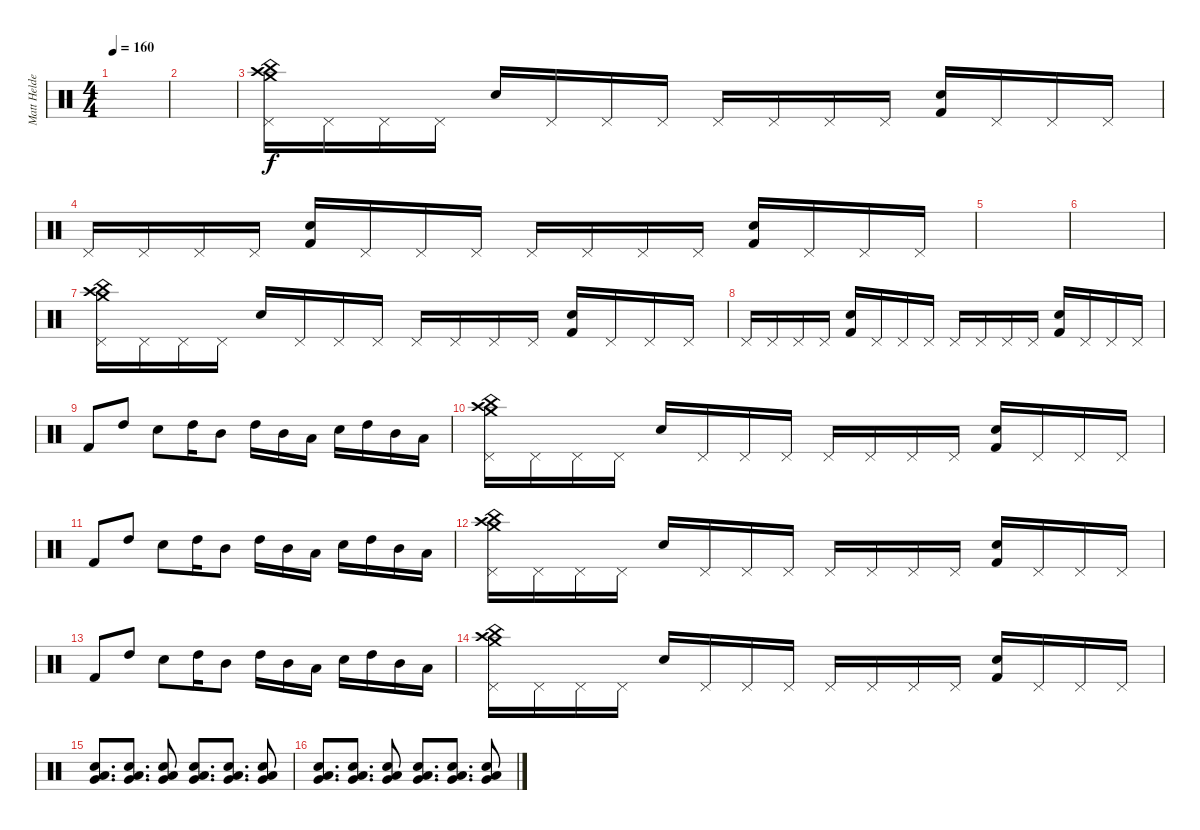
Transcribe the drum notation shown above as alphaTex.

\track ("Matt Helders" "Matt Helde") {instrument percussion}
\staff {score}
\articulation defaults
\ts (4 4)
\tempo 160
\clef neutral
\ks c
|
|
("Pedal Hi-Hat (hit)" "Crash medium (hit)" "Crash high (hit)" "China (hit)").16 "Pedal Hi-Hat (hit)".16 "Pedal Hi-Hat (hit)".16 "Pedal Hi-Hat (hit)".16 "Snare (hit) 2".16 "Pedal Hi-Hat (hit)".16 "Pedal Hi-Hat (hit)".16 "Pedal Hi-Hat (hit)".16 "Pedal Hi-Hat (hit)".16 "Pedal Hi-Hat (hit)".16 "Pedal Hi-Hat (hit)".16 "Pedal Hi-Hat (hit)".16 ("Snare (hit) 2" "Kick (hit) 2").16 "Pedal Hi-Hat (hit)".16 "Pedal Hi-Hat (hit)".16 "Pedal Hi-Hat (hit)".16 |
"Pedal Hi-Hat (hit)".16 "Pedal Hi-Hat (hit)".16 "Pedal Hi-Hat (hit)".16 "Pedal Hi-Hat (hit)".16 ("Snare (hit) 2" "Kick (hit) 2").16 "Pedal Hi-Hat (hit)".16 "Pedal Hi-Hat (hit)".16 "Pedal Hi-Hat (hit)".16 "Pedal Hi-Hat (hit)".16 "Pedal Hi-Hat (hit)".16 "Pedal Hi-Hat (hit)".16 "Pedal Hi-Hat (hit)".16 ("Snare (hit) 2" "Kick (hit) 2").16 "Pedal Hi-Hat (hit)".16 "Pedal Hi-Hat (hit)".16 "Pedal Hi-Hat (hit)".16 |
|
|
("Pedal Hi-Hat (hit)" "Crash medium (hit)" "Crash high (hit)" "China (hit)").16 "Pedal Hi-Hat (hit)".16 "Pedal Hi-Hat (hit)".16 "Pedal Hi-Hat (hit)".16 "Snare (hit) 2".16 "Pedal Hi-Hat (hit)".16 "Pedal Hi-Hat (hit)".16 "Pedal Hi-Hat (hit)".16 "Pedal Hi-Hat (hit)".16 "Pedal Hi-Hat (hit)".16 "Pedal Hi-Hat (hit)".16 "Pedal Hi-Hat (hit)".16 ("Snare (hit) 2" "Kick (hit) 2").16 "Pedal Hi-Hat (hit)".16 "Pedal Hi-Hat (hit)".16 "Pedal Hi-Hat (hit)".16 |
"Pedal Hi-Hat (hit)".16 "Pedal Hi-Hat (hit)".16 "Pedal Hi-Hat (hit)".16 "Pedal Hi-Hat (hit)".16 ("Snare (hit) 2" "Kick (hit) 2").16 "Pedal Hi-Hat (hit)".16 "Pedal Hi-Hat (hit)".16 "Pedal Hi-Hat (hit)".16 "Pedal Hi-Hat (hit)".16 "Pedal Hi-Hat (hit)".16 "Pedal Hi-Hat (hit)".16 "Pedal Hi-Hat (hit)".16 ("Snare (hit) 2" "Kick (hit) 2").16 "Pedal Hi-Hat (hit)".16 "Pedal Hi-Hat (hit)".16 "Pedal Hi-Hat (hit)".16 |
"Kick (hit) 2".8 "High Tom (hit)".8 "Snare (hit) 2".8 "High Tom (hit)".16 "Mid Tom (hit)".8 "High Tom (hit)".16 "Mid Tom (hit)".16 "Low Tom (hit)".16 "Snare (hit) 2".16 "High Tom (hit)".16 "Mid Tom (hit)".16 "Low Tom (hit)".16 |
("Pedal Hi-Hat (hit)" "Crash medium (hit)" "Crash high (hit)" "China (hit)").16 "Pedal Hi-Hat (hit)".16 "Pedal Hi-Hat (hit)".16 "Pedal Hi-Hat (hit)".16 "Snare (hit) 2".16 "Pedal Hi-Hat (hit)".16 "Pedal Hi-Hat (hit)".16 "Pedal Hi-Hat (hit)".16 "Pedal Hi-Hat (hit)".16 "Pedal Hi-Hat (hit)".16 "Pedal Hi-Hat (hit)".16 "Pedal Hi-Hat (hit)".16 ("Snare (hit) 2" "Kick (hit) 2").16 "Pedal Hi-Hat (hit)".16 "Pedal Hi-Hat (hit)".16 "Pedal Hi-Hat (hit)".16 |
"Kick (hit) 2".8 "High Tom (hit)".8 "Snare (hit) 2".8 "High Tom (hit)".16 "Mid Tom (hit)".8 "High Tom (hit)".16 "Mid Tom (hit)".16 "Low Tom (hit)".16 "Snare (hit) 2".16 "High Tom (hit)".16 "Mid Tom (hit)".16 "Low Tom (hit)".16 |
("Pedal Hi-Hat (hit)" "Crash medium (hit)" "Crash high (hit)" "China (hit)").16 "Pedal Hi-Hat (hit)".16 "Pedal Hi-Hat (hit)".16 "Pedal Hi-Hat (hit)".16 "Snare (hit) 2".16 "Pedal Hi-Hat (hit)".16 "Pedal Hi-Hat (hit)".16 "Pedal Hi-Hat (hit)".16 "Pedal Hi-Hat (hit)".16 "Pedal Hi-Hat (hit)".16 "Pedal Hi-Hat (hit)".16 "Pedal Hi-Hat (hit)".16 ("Snare (hit) 2" "Kick (hit) 2").16 "Pedal Hi-Hat (hit)".16 "Pedal Hi-Hat (hit)".16 "Pedal Hi-Hat (hit)".16 |
"Kick (hit) 2".8 "High Tom (hit)".8 "Snare (hit) 2".8 "High Tom (hit)".16 "Mid Tom (hit)".8 "High Tom (hit)".16 "Mid Tom (hit)".16 "Low Tom (hit)".16 "Snare (hit) 2".16 "High Tom (hit)".16 "Mid Tom (hit)".16 "Low Tom (hit)".16 |
("Pedal Hi-Hat (hit)" "Crash medium (hit)" "Crash high (hit)" "China (hit)").16 "Pedal Hi-Hat (hit)".16 "Pedal Hi-Hat (hit)".16 "Pedal Hi-Hat (hit)".16 "Snare (hit) 2".16 "Pedal Hi-Hat (hit)".16 "Pedal Hi-Hat (hit)".16 "Pedal Hi-Hat (hit)".16 "Pedal Hi-Hat (hit)".16 "Pedal Hi-Hat (hit)".16 "Pedal Hi-Hat (hit)".16 "Pedal Hi-Hat (hit)".16 ("Snare (hit) 2" "Kick (hit) 2").16 "Pedal Hi-Hat (hit)".16 "Pedal Hi-Hat (hit)".16 "Pedal Hi-Hat (hit)".16 |
("Low Tom (hit)" "Very Low Tom (hit)" "Snare (hit) 2").8{d} ("Low Tom (hit)" "Very Low Tom (hit)" "Snare (hit) 2").8{d} ("Low Tom (hit)" "Very Low Tom (hit)" "Snare (hit) 2").8 ("Low Tom (hit)" "Very Low Tom (hit)" "Snare (hit) 2").8{d} ("Low Tom (hit)" "Very Low Tom (hit)" "Snare (hit) 2").8{d} ("Low Tom (hit)" "Very Low Tom (hit)" "Snare (hit) 2").8 |
("Low Tom (hit)" "Very Low Tom (hit)" "Snare (hit) 2").8{d} ("Low Tom (hit)" "Very Low Tom (hit)" "Snare (hit) 2").8{d} ("Low Tom (hit)" "Very Low Tom (hit)" "Snare (hit) 2").8 ("Low Tom (hit)" "Very Low Tom (hit)" "Snare (hit) 2").8{d} ("Low Tom (hit)" "Very Low Tom (hit)" "Snare (hit) 2").8{d} ("Low Tom (hit)" "Very Low Tom (hit)" "Snare (hit) 2").8
